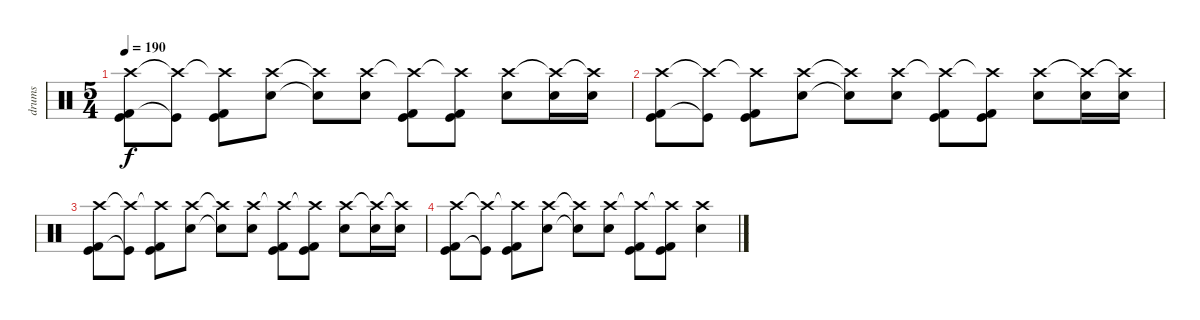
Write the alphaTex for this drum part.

\track ("drums" "drums") {instrument percussion}
\staff {score}
\articulation defaults
\ts (5 4)
\tempo 190
\clef neutral
\ks c
("Crash high (hit)" "Kick (hit) 2" "Kick (hit)").8{dy f} ("Crash high (hit)"{t} "Kick (hit)"{t}).8 ("Crash high (hit)"{t} "Kick (hit) 2" "Kick (hit)").8 ("Crash high (hit)" "Electric Snare (hit)").8 ("Crash high (hit)"{t} "Electric Snare (hit)"{t}).8 ("Crash high (hit)" "Electric Snare (hit)").8 ("Crash high (hit)"{t} "Kick (hit) 2" "Kick (hit)").8 ("Crash high (hit)"{t} "Kick (hit) 2" "Kick (hit)").8 ("Crash high (hit)" "Electric Snare (hit)").8 ("Crash high (hit)"{t} "Electric Snare (hit)").16 ("Crash high (hit)"{t} "Electric Snare (hit)").16 |
("Crash high (hit)" "Kick (hit) 2" "Kick (hit)").8 ("Crash high (hit)"{t} "Kick (hit)"{t}).8 ("Crash high (hit)"{t} "Kick (hit) 2" "Kick (hit)").8 ("Crash high (hit)" "Electric Snare (hit)").8 ("Crash high (hit)"{t} "Electric Snare (hit)"{t}).8 ("Crash high (hit)" "Electric Snare (hit)").8 ("Crash high (hit)"{t} "Kick (hit) 2" "Kick (hit)").8 ("Crash high (hit)"{t} "Kick (hit) 2" "Kick (hit)").8 ("Crash high (hit)" "Electric Snare (hit)").8 ("Crash high (hit)"{t} "Electric Snare (hit)").16 ("Crash high (hit)"{t} "Electric Snare (hit)").16 |
("Crash high (hit)" "Kick (hit) 2" "Kick (hit)").8 ("Crash high (hit)"{t} "Kick (hit)"{t}).8 ("Crash high (hit)"{t} "Kick (hit) 2" "Kick (hit)").8 ("Crash high (hit)" "Electric Snare (hit)").8 ("Crash high (hit)"{t} "Electric Snare (hit)"{t}).8 ("Crash high (hit)" "Electric Snare (hit)").8 ("Crash high (hit)"{t} "Kick (hit) 2" "Kick (hit)").8 ("Crash high (hit)"{t} "Kick (hit) 2" "Kick (hit)").8 ("Crash high (hit)" "Electric Snare (hit)").8 ("Crash high (hit)"{t} "Electric Snare (hit)").16 ("Crash high (hit)"{t} "Electric Snare (hit)").16 |
("Crash high (hit)" "Kick (hit) 2" "Kick (hit)").8 ("Crash high (hit)"{t} "Kick (hit)"{t}).8 ("Crash high (hit)"{t} "Kick (hit) 2" "Kick (hit)").8 ("Crash high (hit)" "Electric Snare (hit)").8 ("Crash high (hit)"{t} "Electric Snare (hit)"{t}).8 ("Crash high (hit)" "Electric Snare (hit)").8 ("Crash high (hit)"{t} "Kick (hit) 2" "Kick (hit)").8 ("Crash high (hit)"{t} "Kick (hit) 2" "Kick (hit)").8 ("Crash high (hit)" "Electric Snare (hit)").4
